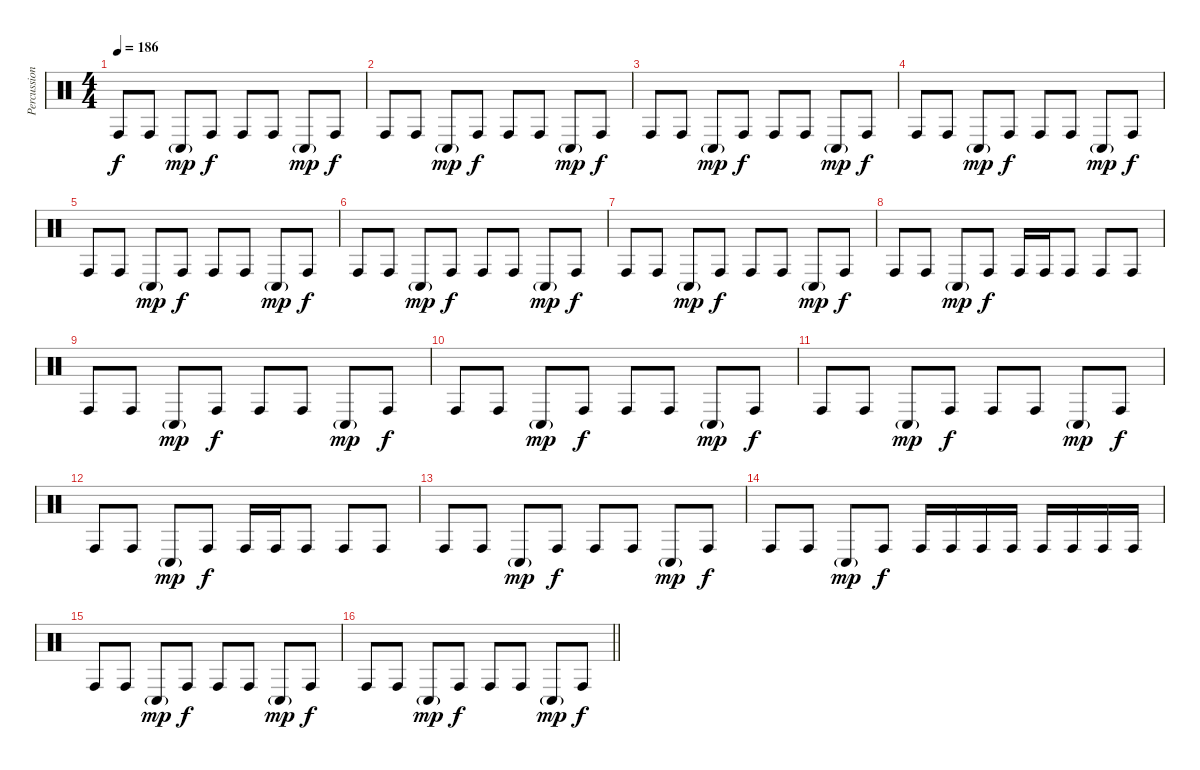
\track ("Percussion" "Percussion") {instrument percussion}
\staff {score}
\articulation defaults
\ts (4 4)
\section ("" "")
\tempo 186
\clef neutral
\ks c "Conga high (hit)".8{dy f} "Conga high (hit)".8 "Conga low (hit)"{g}.8{dy mp} "Conga high (hit)".8{dy f} "Conga high (hit)".8 "Conga high (hit)".8 "Conga low (hit)"{g}.8{dy mp} "Conga high (hit)".8{dy f}
|
"Conga high (hit)".8 "Conga high (hit)".8 "Conga low (hit)"{g}.8{dy mp} "Conga high (hit)".8{dy f} "Conga high (hit)".8 "Conga high (hit)".8 "Conga low (hit)"{g}.8{dy mp} "Conga high (hit)".8{dy f} |
"Conga high (hit)".8 "Conga high (hit)".8 "Conga low (hit)"{g}.8{dy mp} "Conga high (hit)".8{dy f} "Conga high (hit)".8 "Conga high (hit)".8 "Conga low (hit)"{g}.8{dy mp} "Conga high (hit)".8{dy f} |
"Conga high (hit)".8 "Conga high (hit)".8 "Conga low (hit)"{g}.8{dy mp} "Conga high (hit)".8{dy f} "Conga high (hit)".8 "Conga high (hit)".8 "Conga low (hit)"{g}.8{dy mp} "Conga high (hit)".8{dy f} |
"Conga high (hit)".8 "Conga high (hit)".8 "Conga low (hit)"{g}.8{dy mp} "Conga high (hit)".8{dy f} "Conga high (hit)".8 "Conga high (hit)".8 "Conga low (hit)"{g}.8{dy mp} "Conga high (hit)".8{dy f} |
"Conga high (hit)".8 "Conga high (hit)".8 "Conga low (hit)"{g}.8{dy mp} "Conga high (hit)".8{dy f} "Conga high (hit)".8 "Conga high (hit)".8 "Conga low (hit)"{g}.8{dy mp} "Conga high (hit)".8{dy f} |
"Conga high (hit)".8 "Conga high (hit)".8 "Conga low (hit)"{g}.8{dy mp} "Conga high (hit)".8{dy f} "Conga high (hit)".8 "Conga high (hit)".8 "Conga low (hit)"{g}.8{dy mp} "Conga high (hit)".8{dy f} |
"Conga high (hit)".8 "Conga high (hit)".8 "Conga low (hit)"{g}.8{dy mp} "Conga high (hit)".8{dy f} "Conga high (hit)".16 "Conga high (hit)".16 "Conga high (hit)".8 "Conga high (hit)".8 "Conga high (hit)".8 |
"Conga high (hit)".8 "Conga high (hit)".8 "Conga low (hit)"{g}.8{dy mp} "Conga high (hit)".8{dy f} "Conga high (hit)".8 "Conga high (hit)".8 "Conga low (hit)"{g}.8{dy mp} "Conga high (hit)".8{dy f} |
"Conga high (hit)".8 "Conga high (hit)".8 "Conga low (hit)"{g}.8{dy mp} "Conga high (hit)".8{dy f} "Conga high (hit)".8 "Conga high (hit)".8 "Conga low (hit)"{g}.8{dy mp} "Conga high (hit)".8{dy f} |
"Conga high (hit)".8 "Conga high (hit)".8 "Conga low (hit)"{g}.8{dy mp} "Conga high (hit)".8{dy f} "Conga high (hit)".8 "Conga high (hit)".8 "Conga low (hit)"{g}.8{dy mp} "Conga high (hit)".8{dy f} |
"Conga high (hit)".8 "Conga high (hit)".8 "Conga low (hit)"{g}.8{dy mp} "Conga high (hit)".8{dy f} "Conga high (hit)".16 "Conga high (hit)".16 "Conga high (hit)".8 "Conga high (hit)".8 "Conga high (hit)".8 |
"Conga high (hit)".8 "Conga high (hit)".8 "Conga low (hit)"{g}.8{dy mp} "Conga high (hit)".8{dy f} "Conga high (hit)".8 "Conga high (hit)".8 "Conga low (hit)"{g}.8{dy mp} "Conga high (hit)".8{dy f} |
"Conga high (hit)".8 "Conga high (hit)".8 "Conga low (hit)"{g}.8{dy mp} "Conga high (hit)".8{dy f} "Conga high (hit)".16 "Conga high (hit)".16 "Conga high (hit)".16 "Conga high (hit)".16 "Conga high (hit)".16 "Conga high (hit)".16 "Conga high (hit)".16 "Conga high (hit)".16 |
"Conga high (hit)".8 "Conga high (hit)".8 "Conga low (hit)"{g}.8{dy mp} "Conga high (hit)".8{dy f} "Conga high (hit)".8 "Conga high (hit)".8 "Conga low (hit)"{g}.8{dy mp} "Conga high (hit)".8{dy f} |
\barLineRight lightlight "Conga high (hit)".8 "Conga high (hit)".8 "Conga low (hit)"{g}.8{dy mp} "Conga high (hit)".8{dy f} "Conga high (hit)".8 "Conga high (hit)".8 "Conga low (hit)"{g}.8{dy mp} "Conga high (hit)".8{dy f}
